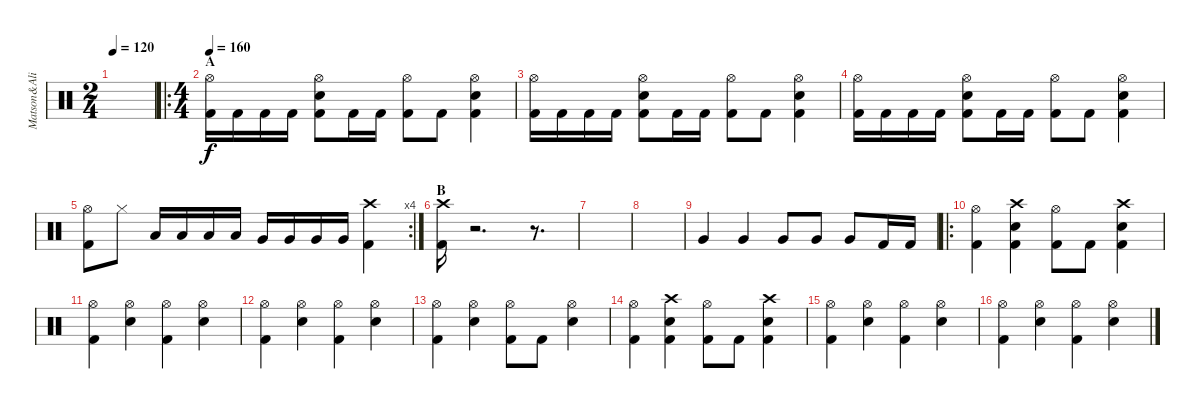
\track ("Matson&Ali" "Matson&Ali") {instrument percussion}
\staff {score}
\articulation defaults
\ts (2 4)
\tempo 120
\clef neutral
\ks c
|
\ro
\ts (4 4)
\section ("" "A")
\tempo 160
("Hi-Hat (open)" "Kick (hit) 2").16 "Kick (hit) 2".16 "Kick (hit) 2".16 "Kick (hit) 2".16 ("Hi-Hat (open)" "Snare (hit) 2" "Kick (hit) 2").8 "Kick (hit) 2".16 "Kick (hit) 2".16 ("Hi-Hat (open)" "Kick (hit) 2").8 "Kick (hit) 2".8 ("Hi-Hat (open)" "Snare (hit) 2" "Kick (hit) 2").4 |
("Hi-Hat (open)" "Kick (hit) 2").16 "Kick (hit) 2".16 "Kick (hit) 2".16 "Kick (hit) 2".16 ("Hi-Hat (open)" "Snare (hit) 2" "Kick (hit) 2").8 "Kick (hit) 2".16 "Kick (hit) 2".16 ("Hi-Hat (open)" "Kick (hit) 2").8 "Kick (hit) 2".8 ("Hi-Hat (open)" "Snare (hit) 2" "Kick (hit) 2").4 |
("Hi-Hat (open)" "Kick (hit) 2").16 "Kick (hit) 2".16 "Kick (hit) 2".16 "Kick (hit) 2".16 ("Hi-Hat (open)" "Snare (hit) 2" "Kick (hit) 2").8 "Kick (hit) 2".16 "Kick (hit) 2".16 ("Hi-Hat (open)" "Kick (hit) 2").8 "Kick (hit) 2".8 ("Hi-Hat (open)" "Snare (hit) 2" "Kick (hit) 2").4 |
\rc 4
("Hi-Hat (open)" "Kick (hit) 2").8 "Hi-Hat (closed)".8 "Low Tom (hit)".16 "Low Tom (hit)".16 "Low Tom (hit)".16 "Low Tom (hit)".16 "Very Low Tom (hit)".16 "Very Low Tom (hit)".16 "Very Low Tom (hit)".16 "Very Low Tom (hit)".16 ("Crash high (hit)" "Kick (hit) 2").4 |
\section ("" "B")
("Crash high (hit)" "Kick (hit) 2").16 r.2{d} r.8{d} |
|
|
"Very Low Tom (hit)".4 "Very Low Tom (hit)".4 "Very Low Tom (hit)".8 "Very Low Tom (hit)".8 "Very Low Tom (hit)".8 "Kick (hit) 2".16 "Kick (hit) 2".16 |
\ro
("Hi-Hat (open)" "Kick (hit) 2").4 ("Crash high (hit)" "Snare (hit) 2" "Kick (hit) 2").4 ("Hi-Hat (open)" "Kick (hit) 2").8 "Kick (hit) 2".8 ("Crash high (hit)" "Snare (hit) 2" "Kick (hit) 2").4 |
("Hi-Hat (open)" "Kick (hit) 2").4 ("Hi-Hat (open)" "Snare (hit) 2").4 ("Hi-Hat (open)" "Kick (hit) 2").4 ("Hi-Hat (open)" "Snare (hit) 2").4 |
("Hi-Hat (open)" "Kick (hit) 2").4 ("Hi-Hat (open)" "Snare (hit) 2").4 ("Hi-Hat (open)" "Kick (hit) 2").4 ("Hi-Hat (open)" "Snare (hit) 2").4 |
("Hi-Hat (open)" "Kick (hit) 2").4 ("Hi-Hat (open)" "Snare (hit) 2").4 ("Hi-Hat (open)" "Kick (hit) 2").8 "Kick (hit) 2".8 ("Hi-Hat (open)" "Snare (hit) 2").4 |
("Hi-Hat (open)" "Kick (hit) 2").4 ("Crash high (hit)" "Snare (hit) 2" "Kick (hit) 2").4 ("Hi-Hat (open)" "Kick (hit) 2").8 "Kick (hit) 2".8 ("Crash high (hit)" "Snare (hit) 2" "Kick (hit) 2").4 |
("Hi-Hat (open)" "Kick (hit) 2").4 ("Hi-Hat (open)" "Snare (hit) 2").4 ("Hi-Hat (open)" "Kick (hit) 2").4 ("Hi-Hat (open)" "Snare (hit) 2").4 |
("Hi-Hat (open)" "Kick (hit) 2").4 ("Hi-Hat (open)" "Snare (hit) 2").4 ("Hi-Hat (open)" "Kick (hit) 2").4 ("Hi-Hat (open)" "Snare (hit) 2").4
